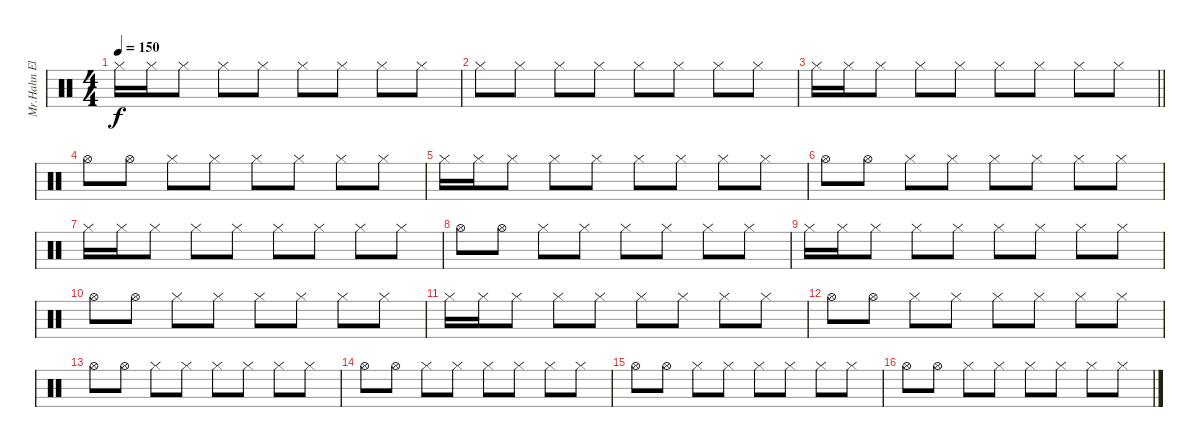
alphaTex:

\track ("Mr.Hahn Eletronic Drums" "Mr.Hahn El") {instrument percussion}
\staff {score}
\articulation defaults
\ts (4 4)
\tempo 150
\clef neutral
\ks c "Hi-Hat (closed)".16{dy f} "Hi-Hat (closed)".16 "Hi-Hat (closed)".8 "Hi-Hat (closed)".8 "Hi-Hat (closed)".8 "Hi-Hat (closed)".8 "Hi-Hat (closed)".8 "Hi-Hat (closed)".8 "Hi-Hat (closed)".8
|
"Hi-Hat (closed)".8 "Hi-Hat (closed)".8 "Hi-Hat (closed)".8 "Hi-Hat (closed)".8 "Hi-Hat (closed)".8 "Hi-Hat (closed)".8 "Hi-Hat (closed)".8 "Hi-Hat (closed)".8 |
\barLineRight lightlight "Hi-Hat (closed)".16 "Hi-Hat (closed)".16 "Hi-Hat (closed)".8 "Hi-Hat (closed)".8 "Hi-Hat (closed)".8 "Hi-Hat (closed)".8 "Hi-Hat (closed)".8 "Hi-Hat (closed)".8 "Hi-Hat (closed)".8
|
"Hi-Hat (open)".8 "Hi-Hat (open)".8 "Hi-Hat (closed)".8 "Hi-Hat (closed)".8 "Hi-Hat (closed)".8 "Hi-Hat (closed)".8 "Hi-Hat (closed)".8 "Hi-Hat (closed)".8 |
"Hi-Hat (closed)".16 "Hi-Hat (closed)".16 "Hi-Hat (closed)".8 "Hi-Hat (closed)".8 "Hi-Hat (closed)".8 "Hi-Hat (closed)".8 "Hi-Hat (closed)".8 "Hi-Hat (closed)".8 "Hi-Hat (closed)".8 |
"Hi-Hat (open)".8 "Hi-Hat (open)".8 "Hi-Hat (closed)".8 "Hi-Hat (closed)".8 "Hi-Hat (closed)".8 "Hi-Hat (closed)".8 "Hi-Hat (closed)".8 "Hi-Hat (closed)".8 |
"Hi-Hat (closed)".16 "Hi-Hat (closed)".16 "Hi-Hat (closed)".8 "Hi-Hat (closed)".8 "Hi-Hat (closed)".8 "Hi-Hat (closed)".8 "Hi-Hat (closed)".8 "Hi-Hat (closed)".8 "Hi-Hat (closed)".8 |
"Hi-Hat (open)".8 "Hi-Hat (open)".8 "Hi-Hat (closed)".8 "Hi-Hat (closed)".8 "Hi-Hat (closed)".8 "Hi-Hat (closed)".8 "Hi-Hat (closed)".8 "Hi-Hat (closed)".8 |
"Hi-Hat (closed)".16 "Hi-Hat (closed)".16 "Hi-Hat (closed)".8 "Hi-Hat (closed)".8 "Hi-Hat (closed)".8 "Hi-Hat (closed)".8 "Hi-Hat (closed)".8 "Hi-Hat (closed)".8 "Hi-Hat (closed)".8 |
"Hi-Hat (open)".8 "Hi-Hat (open)".8 "Hi-Hat (closed)".8 "Hi-Hat (closed)".8 "Hi-Hat (closed)".8 "Hi-Hat (closed)".8 "Hi-Hat (closed)".8 "Hi-Hat (closed)".8 |
"Hi-Hat (closed)".16 "Hi-Hat (closed)".16 "Hi-Hat (closed)".8 "Hi-Hat (closed)".8 "Hi-Hat (closed)".8 "Hi-Hat (closed)".8 "Hi-Hat (closed)".8 "Hi-Hat (closed)".8 "Hi-Hat (closed)".8 |
"Hi-Hat (open)".8 "Hi-Hat (open)".8 "Hi-Hat (closed)".8 "Hi-Hat (closed)".8 "Hi-Hat (closed)".8 "Hi-Hat (closed)".8 "Hi-Hat (closed)".8 "Hi-Hat (closed)".8 |
"Hi-Hat (open)".8 "Hi-Hat (open)".8 "Hi-Hat (closed)".8 "Hi-Hat (closed)".8 "Hi-Hat (closed)".8 "Hi-Hat (closed)".8 "Hi-Hat (closed)".8 "Hi-Hat (closed)".8 |
"Hi-Hat (open)".8 "Hi-Hat (open)".8 "Hi-Hat (closed)".8 "Hi-Hat (closed)".8 "Hi-Hat (closed)".8 "Hi-Hat (closed)".8 "Hi-Hat (closed)".8 "Hi-Hat (closed)".8 |
"Hi-Hat (open)".8 "Hi-Hat (open)".8 "Hi-Hat (closed)".8 "Hi-Hat (closed)".8 "Hi-Hat (closed)".8 "Hi-Hat (closed)".8 "Hi-Hat (closed)".8 "Hi-Hat (closed)".8 |
"Hi-Hat (open)".8 "Hi-Hat (open)".8 "Hi-Hat (closed)".8 "Hi-Hat (closed)".8 "Hi-Hat (closed)".8 "Hi-Hat (closed)".8 "Hi-Hat (closed)".8 "Hi-Hat (closed)".8
